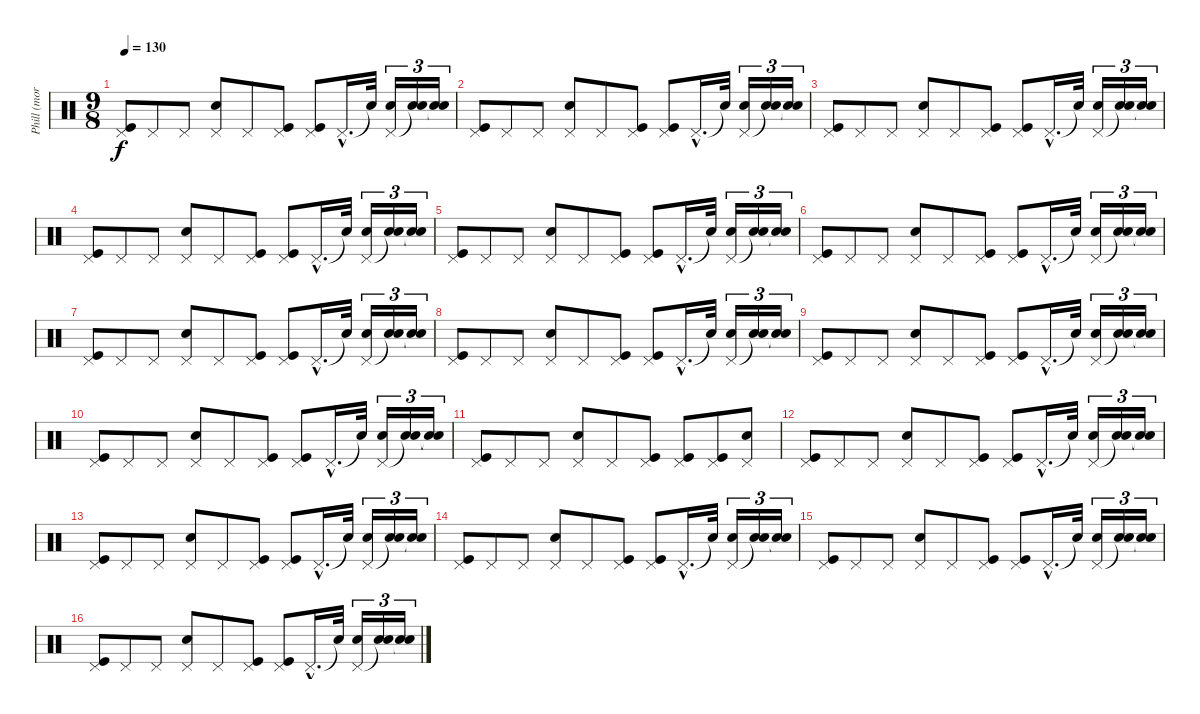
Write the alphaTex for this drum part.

\track ("Phill (mornig bell)" "Phill (mor") {instrument percussion}
\staff {score}
\articulation defaults
\ts (9 8)
\tempo 130
\clef neutral
\ks c
("Pedal Hi-Hat (hit)" "Kick (hit)").8{dy f} "Pedal Hi-Hat (hit)".8 "Pedal Hi-Hat (hit)".8 ("Pedal Hi-Hat (hit)" "Snare (hit) 2").8 "Pedal Hi-Hat (hit)".8 ("Pedal Hi-Hat (hit)" "Kick (hit)").8 ("Pedal Hi-Hat (hit)" "Kick (hit)").8 "Pedal Hi-Hat (hit)"{hac}.16{d} "Snare (hit)"{t}.32 ("Pedal Hi-Hat (hit)" "Snare (hit) 2").16{tu (3 2)} ("Snare (hit)"{t} "Snare (hit) 2").16{tu (3 2)} ("Snare (hit)"{t} "Snare (hit) 2").16{tu (3 2)} |
("Pedal Hi-Hat (hit)" "Kick (hit)").8 "Pedal Hi-Hat (hit)".8 "Pedal Hi-Hat (hit)".8 ("Pedal Hi-Hat (hit)" "Snare (hit) 2").8 "Pedal Hi-Hat (hit)".8 ("Pedal Hi-Hat (hit)" "Kick (hit)").8 ("Pedal Hi-Hat (hit)" "Kick (hit)").8 "Pedal Hi-Hat (hit)"{hac}.16{d} "Snare (hit)"{t}.32 ("Pedal Hi-Hat (hit)" "Snare (hit) 2").16{tu (3 2)} ("Snare (hit)"{t} "Snare (hit) 2").16{tu (3 2)} ("Snare (hit)"{t} "Snare (hit) 2").16{tu (3 2)} |
("Pedal Hi-Hat (hit)" "Kick (hit)").8 "Pedal Hi-Hat (hit)".8 "Pedal Hi-Hat (hit)".8 ("Pedal Hi-Hat (hit)" "Snare (hit) 2").8 "Pedal Hi-Hat (hit)".8 ("Pedal Hi-Hat (hit)" "Kick (hit)").8 ("Pedal Hi-Hat (hit)" "Kick (hit)").8 "Pedal Hi-Hat (hit)"{hac}.16{d} "Snare (hit)"{t}.32 ("Pedal Hi-Hat (hit)" "Snare (hit) 2").16{tu (3 2)} ("Snare (hit)"{t} "Snare (hit) 2").16{tu (3 2)} ("Snare (hit)"{t} "Snare (hit) 2").16{tu (3 2)} |
("Pedal Hi-Hat (hit)" "Kick (hit)").8 "Pedal Hi-Hat (hit)".8 "Pedal Hi-Hat (hit)".8 ("Pedal Hi-Hat (hit)" "Snare (hit) 2").8 "Pedal Hi-Hat (hit)".8 ("Pedal Hi-Hat (hit)" "Kick (hit)").8 ("Pedal Hi-Hat (hit)" "Kick (hit)").8 "Pedal Hi-Hat (hit)"{hac}.16{d} "Snare (hit)"{t}.32 ("Pedal Hi-Hat (hit)" "Snare (hit) 2").16{tu (3 2)} ("Snare (hit)"{t} "Snare (hit) 2").16{tu (3 2)} ("Snare (hit)"{t} "Snare (hit) 2").16{tu (3 2)} |
("Pedal Hi-Hat (hit)" "Kick (hit)").8 "Pedal Hi-Hat (hit)".8 "Pedal Hi-Hat (hit)".8 ("Pedal Hi-Hat (hit)" "Snare (hit) 2").8 "Pedal Hi-Hat (hit)".8 ("Pedal Hi-Hat (hit)" "Kick (hit)").8 ("Pedal Hi-Hat (hit)" "Kick (hit)").8 "Pedal Hi-Hat (hit)"{hac}.16{d} "Snare (hit)"{t}.32 ("Pedal Hi-Hat (hit)" "Snare (hit) 2").16{tu (3 2)} ("Snare (hit)"{t} "Snare (hit) 2").16{tu (3 2)} ("Snare (hit)"{t} "Snare (hit) 2").16{tu (3 2)} |
("Pedal Hi-Hat (hit)" "Kick (hit)").8 "Pedal Hi-Hat (hit)".8 "Pedal Hi-Hat (hit)".8 ("Pedal Hi-Hat (hit)" "Snare (hit) 2").8 "Pedal Hi-Hat (hit)".8 ("Pedal Hi-Hat (hit)" "Kick (hit)").8 ("Pedal Hi-Hat (hit)" "Kick (hit)").8 "Pedal Hi-Hat (hit)"{hac}.16{d} "Snare (hit)"{t}.32 ("Pedal Hi-Hat (hit)" "Snare (hit) 2").16{tu (3 2)} ("Snare (hit)"{t} "Snare (hit) 2").16{tu (3 2)} ("Snare (hit)"{t} "Snare (hit) 2").16{tu (3 2)} |
("Pedal Hi-Hat (hit)" "Kick (hit)").8 "Pedal Hi-Hat (hit)".8 "Pedal Hi-Hat (hit)".8 ("Pedal Hi-Hat (hit)" "Snare (hit) 2").8 "Pedal Hi-Hat (hit)".8 ("Pedal Hi-Hat (hit)" "Kick (hit)").8 ("Pedal Hi-Hat (hit)" "Kick (hit)").8 "Pedal Hi-Hat (hit)"{hac}.16{d} "Snare (hit)"{t}.32 ("Pedal Hi-Hat (hit)" "Snare (hit) 2").16{tu (3 2)} ("Snare (hit)"{t} "Snare (hit) 2").16{tu (3 2)} ("Snare (hit)"{t} "Snare (hit) 2").16{tu (3 2)} |
("Pedal Hi-Hat (hit)" "Kick (hit)").8 "Pedal Hi-Hat (hit)".8 "Pedal Hi-Hat (hit)".8 ("Pedal Hi-Hat (hit)" "Snare (hit) 2").8 "Pedal Hi-Hat (hit)".8 ("Pedal Hi-Hat (hit)" "Kick (hit)").8 ("Pedal Hi-Hat (hit)" "Kick (hit)").8 "Pedal Hi-Hat (hit)"{hac}.16{d} "Snare (hit)"{t}.32 ("Pedal Hi-Hat (hit)" "Snare (hit) 2").16{tu (3 2)} ("Snare (hit)"{t} "Snare (hit) 2").16{tu (3 2)} ("Snare (hit)"{t} "Snare (hit) 2").16{tu (3 2)} |
("Pedal Hi-Hat (hit)" "Kick (hit)").8 "Pedal Hi-Hat (hit)".8 "Pedal Hi-Hat (hit)".8 ("Pedal Hi-Hat (hit)" "Snare (hit) 2").8 "Pedal Hi-Hat (hit)".8 ("Pedal Hi-Hat (hit)" "Kick (hit)").8 ("Pedal Hi-Hat (hit)" "Kick (hit)").8 "Pedal Hi-Hat (hit)"{hac}.16{d} "Snare (hit)"{t}.32 ("Pedal Hi-Hat (hit)" "Snare (hit) 2").16{tu (3 2)} ("Snare (hit)"{t} "Snare (hit) 2").16{tu (3 2)} ("Snare (hit)"{t} "Snare (hit) 2").16{tu (3 2)} |
("Pedal Hi-Hat (hit)" "Kick (hit)").8 "Pedal Hi-Hat (hit)".8 "Pedal Hi-Hat (hit)".8 ("Pedal Hi-Hat (hit)" "Snare (hit) 2").8 "Pedal Hi-Hat (hit)".8 ("Pedal Hi-Hat (hit)" "Kick (hit)").8 ("Pedal Hi-Hat (hit)" "Kick (hit)").8 "Pedal Hi-Hat (hit)"{hac}.16{d} "Snare (hit)"{t}.32 ("Pedal Hi-Hat (hit)" "Snare (hit) 2").16{tu (3 2)} ("Snare (hit)"{t} "Snare (hit) 2").16{tu (3 2)} ("Snare (hit)"{t} "Snare (hit) 2").16{tu (3 2)} |
("Pedal Hi-Hat (hit)" "Kick (hit)").8 "Pedal Hi-Hat (hit)".8 "Pedal Hi-Hat (hit)".8 ("Pedal Hi-Hat (hit)" "Snare (hit) 2").8 "Pedal Hi-Hat (hit)".8 ("Pedal Hi-Hat (hit)" "Kick (hit)").8 ("Pedal Hi-Hat (hit)" "Kick (hit)").8 ("Pedal Hi-Hat (hit)" "Kick (hit)").8 ("Pedal Hi-Hat (hit)" "Snare (hit) 2").8 |
("Pedal Hi-Hat (hit)" "Kick (hit)").8 "Pedal Hi-Hat (hit)".8 "Pedal Hi-Hat (hit)".8 ("Pedal Hi-Hat (hit)" "Snare (hit) 2").8 "Pedal Hi-Hat (hit)".8 ("Pedal Hi-Hat (hit)" "Kick (hit)").8 ("Pedal Hi-Hat (hit)" "Kick (hit)").8 "Pedal Hi-Hat (hit)"{hac}.16{d} "Snare (hit)"{t}.32 ("Pedal Hi-Hat (hit)" "Snare (hit) 2").16{tu (3 2)} ("Snare (hit)"{t} "Snare (hit) 2").16{tu (3 2)} ("Snare (hit)"{t} "Snare (hit) 2").16{tu (3 2)} |
("Pedal Hi-Hat (hit)" "Kick (hit)").8 "Pedal Hi-Hat (hit)".8 "Pedal Hi-Hat (hit)".8 ("Pedal Hi-Hat (hit)" "Snare (hit) 2").8 "Pedal Hi-Hat (hit)".8 ("Pedal Hi-Hat (hit)" "Kick (hit)").8 ("Pedal Hi-Hat (hit)" "Kick (hit)").8 "Pedal Hi-Hat (hit)"{hac}.16{d} "Snare (hit)"{t}.32 ("Pedal Hi-Hat (hit)" "Snare (hit) 2").16{tu (3 2)} ("Snare (hit)"{t} "Snare (hit) 2").16{tu (3 2)} ("Snare (hit)"{t} "Snare (hit) 2").16{tu (3 2)} |
("Pedal Hi-Hat (hit)" "Kick (hit)").8 "Pedal Hi-Hat (hit)".8 "Pedal Hi-Hat (hit)".8 ("Pedal Hi-Hat (hit)" "Snare (hit) 2").8 "Pedal Hi-Hat (hit)".8 ("Pedal Hi-Hat (hit)" "Kick (hit)").8 ("Pedal Hi-Hat (hit)" "Kick (hit)").8 "Pedal Hi-Hat (hit)"{hac}.16{d} "Snare (hit)"{t}.32 ("Pedal Hi-Hat (hit)" "Snare (hit) 2").16{tu (3 2)} ("Snare (hit)"{t} "Snare (hit) 2").16{tu (3 2)} ("Snare (hit)"{t} "Snare (hit) 2").16{tu (3 2)} |
("Pedal Hi-Hat (hit)" "Kick (hit)").8 "Pedal Hi-Hat (hit)".8 "Pedal Hi-Hat (hit)".8 ("Pedal Hi-Hat (hit)" "Snare (hit) 2").8 "Pedal Hi-Hat (hit)".8 ("Pedal Hi-Hat (hit)" "Kick (hit)").8 ("Pedal Hi-Hat (hit)" "Kick (hit)").8 "Pedal Hi-Hat (hit)"{hac}.16{d} "Snare (hit)"{t}.32 ("Pedal Hi-Hat (hit)" "Snare (hit) 2").16{tu (3 2)} ("Snare (hit)"{t} "Snare (hit) 2").16{tu (3 2)} ("Snare (hit)"{t} "Snare (hit) 2").16{tu (3 2)} |
("Pedal Hi-Hat (hit)" "Kick (hit)").8 "Pedal Hi-Hat (hit)".8 "Pedal Hi-Hat (hit)".8 ("Pedal Hi-Hat (hit)" "Snare (hit) 2").8 "Pedal Hi-Hat (hit)".8 ("Pedal Hi-Hat (hit)" "Kick (hit)").8 ("Pedal Hi-Hat (hit)" "Kick (hit)").8 "Pedal Hi-Hat (hit)"{hac}.16{d} "Snare (hit)"{t}.32 ("Pedal Hi-Hat (hit)" "Snare (hit) 2").16{tu (3 2)} ("Snare (hit)"{t} "Snare (hit) 2").16{tu (3 2)} ("Snare (hit)"{t} "Snare (hit) 2").16{tu (3 2)}
